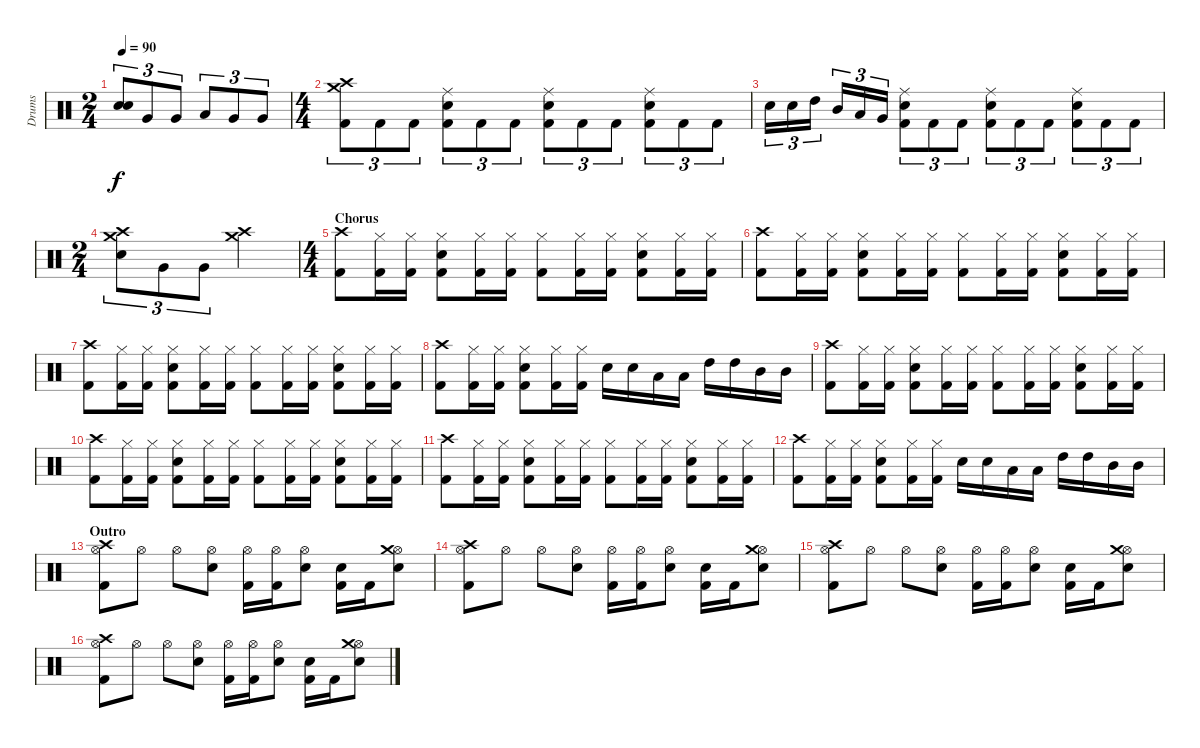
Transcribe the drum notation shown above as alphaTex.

\track ("Drums" "Drums") {instrument percussion}
\staff {score}
\articulation defaults
\ts (2 4)
\tempo 90
\clef neutral
\ks c
("Electric Snare (hit)" "Electric Snare (hit)").8{tu (3 2) dy f} "Very Low Tom (hit)".8{tu (3 2)} "Very Low Tom (hit)".8{tu (3 2)} "Low Tom (hit)".8{tu (3 2)} "Very Low Tom (hit)".8{tu (3 2)} "Very Low Tom (hit)".8{tu (3 2)} |
\ts (4 4)
("Crash medium (hit)" "Crash high (hit)" "Kick (hit) 2").8{tu (3 2)} "Kick (hit) 2".8{tu (3 2)} "Kick (hit) 2".8{tu (3 2)} ("Electric Snare (hit)" "Ride (middle)" "Kick (hit) 2").8{tu (3 2)} "Kick (hit) 2".8{tu (3 2)} "Kick (hit) 2".8{tu (3 2)} ("Electric Snare (hit)" "Ride (middle)" "Kick (hit) 2").8{tu (3 2)} "Kick (hit) 2".8{tu (3 2)} "Kick (hit) 2".8{tu (3 2)} ("Electric Snare (hit)" "Ride (middle)" "Kick (hit) 2").8{tu (3 2)} "Kick (hit) 2".8{tu (3 2)} "Kick (hit) 2".8{tu (3 2)} |
"Electric Snare (hit)".16{tu (3 2)} "Electric Snare (hit)".16{tu (3 2)} "High Tom (hit)".16{tu (3 2)} "Mid Tom (hit)".16{tu (3 2)} "Low Tom (hit)".16{tu (3 2)} "Very Low Tom (hit)".16{tu (3 2)} ("Electric Snare (hit)" "Ride (middle)" "Kick (hit) 2").8{tu (3 2)} "Kick (hit) 2".8{tu (3 2)} "Kick (hit) 2".8{tu (3 2)} ("Electric Snare (hit)" "Ride (middle)" "Kick (hit) 2").8{tu (3 2)} "Kick (hit) 2".8{tu (3 2)} "Kick (hit) 2".8{tu (3 2)} ("Electric Snare (hit)" "Ride (middle)" "Kick (hit) 2").8{tu (3 2)} "Kick (hit) 2".8{tu (3 2)} "Kick (hit) 2".8{tu (3 2)} |
\ts (2 4)
("Crash high (hit)" "Crash medium (hit)" "Electric Snare (hit)").8{tu (3 2)} "Very Low Tom (hit)".8{tu (3 2)} "Very Low Tom (hit)".8{tu (3 2)} ("Crash high (hit)" "Crash medium (hit)").4 |
\ts (4 4)
\section ("" "Chorus")
("Crash high (hit)" "Kick (hit) 2").8 ("Hi-Hat (closed)" "Kick (hit) 2").16 ("Hi-Hat (closed)" "Kick (hit) 2").16 ("Hi-Hat (closed)" "Kick (hit) 2" "Electric Snare (hit)").8 ("Hi-Hat (closed)" "Kick (hit) 2").16 ("Hi-Hat (closed)" "Kick (hit) 2").16 ("Hi-Hat (closed)" "Kick (hit) 2").8 ("Hi-Hat (closed)" "Kick (hit) 2").16 ("Hi-Hat (closed)" "Kick (hit) 2").16 ("Hi-Hat (closed)" "Kick (hit) 2" "Electric Snare (hit)").8 ("Hi-Hat (closed)" "Kick (hit) 2").16 ("Hi-Hat (closed)" "Kick (hit) 2").16 |
("Crash high (hit)" "Kick (hit) 2").8 ("Hi-Hat (closed)" "Kick (hit) 2").16 ("Hi-Hat (closed)" "Kick (hit) 2").16 ("Hi-Hat (closed)" "Kick (hit) 2" "Electric Snare (hit)").8 ("Hi-Hat (closed)" "Kick (hit) 2").16 ("Hi-Hat (closed)" "Kick (hit) 2").16 ("Hi-Hat (closed)" "Kick (hit) 2").8 ("Hi-Hat (closed)" "Kick (hit) 2").16 ("Hi-Hat (closed)" "Kick (hit) 2").16 ("Hi-Hat (closed)" "Kick (hit) 2" "Electric Snare (hit)").8 ("Hi-Hat (closed)" "Kick (hit) 2").16 ("Hi-Hat (closed)" "Kick (hit) 2").16 |
("Crash high (hit)" "Kick (hit) 2").8 ("Hi-Hat (closed)" "Kick (hit) 2").16 ("Hi-Hat (closed)" "Kick (hit) 2").16 ("Hi-Hat (closed)" "Kick (hit) 2" "Electric Snare (hit)").8 ("Hi-Hat (closed)" "Kick (hit) 2").16 ("Hi-Hat (closed)" "Kick (hit) 2").16 ("Hi-Hat (closed)" "Kick (hit) 2").8 ("Hi-Hat (closed)" "Kick (hit) 2").16 ("Hi-Hat (closed)" "Kick (hit) 2").16 ("Hi-Hat (closed)" "Kick (hit) 2" "Electric Snare (hit)").8 ("Hi-Hat (closed)" "Kick (hit) 2").16 ("Hi-Hat (closed)" "Kick (hit) 2").16 |
("Crash high (hit)" "Kick (hit) 2").8 ("Hi-Hat (closed)" "Kick (hit) 2").16 ("Hi-Hat (closed)" "Kick (hit) 2").16 ("Hi-Hat (closed)" "Kick (hit) 2" "Electric Snare (hit)").8 ("Hi-Hat (closed)" "Kick (hit) 2").16 ("Hi-Hat (closed)" "Kick (hit) 2").16 "Electric Snare (hit)".16 "Electric Snare (hit)".16 "Low Tom (hit)".16 "Low Tom (hit)".16 "High Tom (hit)".16 "High Tom (hit)".16 "Mid Tom (hit)".16 "Mid Tom (hit)".16 |
("Crash high (hit)" "Kick (hit) 2").8 ("Hi-Hat (closed)" "Kick (hit) 2").16 ("Hi-Hat (closed)" "Kick (hit) 2").16 ("Hi-Hat (closed)" "Kick (hit) 2" "Electric Snare (hit)").8 ("Hi-Hat (closed)" "Kick (hit) 2").16 ("Hi-Hat (closed)" "Kick (hit) 2").16 ("Hi-Hat (closed)" "Kick (hit) 2").8 ("Hi-Hat (closed)" "Kick (hit) 2").16 ("Hi-Hat (closed)" "Kick (hit) 2").16 ("Hi-Hat (closed)" "Kick (hit) 2" "Electric Snare (hit)").8 ("Hi-Hat (closed)" "Kick (hit) 2").16 ("Hi-Hat (closed)" "Kick (hit) 2").16 |
("Crash high (hit)" "Kick (hit) 2").8 ("Hi-Hat (closed)" "Kick (hit) 2").16 ("Hi-Hat (closed)" "Kick (hit) 2").16 ("Hi-Hat (closed)" "Kick (hit) 2" "Electric Snare (hit)").8 ("Hi-Hat (closed)" "Kick (hit) 2").16 ("Hi-Hat (closed)" "Kick (hit) 2").16 ("Hi-Hat (closed)" "Kick (hit) 2").8 ("Hi-Hat (closed)" "Kick (hit) 2").16 ("Hi-Hat (closed)" "Kick (hit) 2").16 ("Hi-Hat (closed)" "Kick (hit) 2" "Electric Snare (hit)").8 ("Hi-Hat (closed)" "Kick (hit) 2").16 ("Hi-Hat (closed)" "Kick (hit) 2").16 |
("Crash high (hit)" "Kick (hit) 2").8 ("Hi-Hat (closed)" "Kick (hit) 2").16 ("Hi-Hat (closed)" "Kick (hit) 2").16 ("Hi-Hat (closed)" "Kick (hit) 2" "Electric Snare (hit)").8 ("Hi-Hat (closed)" "Kick (hit) 2").16 ("Hi-Hat (closed)" "Kick (hit) 2").16 ("Hi-Hat (closed)" "Kick (hit) 2").8 ("Hi-Hat (closed)" "Kick (hit) 2").16 ("Hi-Hat (closed)" "Kick (hit) 2").16 ("Hi-Hat (closed)" "Kick (hit) 2" "Electric Snare (hit)").8 ("Hi-Hat (closed)" "Kick (hit) 2").16 ("Hi-Hat (closed)" "Kick (hit) 2").16 |
("Crash high (hit)" "Kick (hit) 2").8 ("Hi-Hat (closed)" "Kick (hit) 2").16 ("Hi-Hat (closed)" "Kick (hit) 2").16 ("Hi-Hat (closed)" "Kick (hit) 2" "Electric Snare (hit)").8 ("Hi-Hat (closed)" "Kick (hit) 2").16 ("Hi-Hat (closed)" "Kick (hit) 2").16 "Electric Snare (hit)".16 "Electric Snare (hit)".16 "Low Tom (hit)".16 "Low Tom (hit)".16 "High Tom (hit)".16 "High Tom (hit)".16 "Mid Tom (hit)".16 "Mid Tom (hit)".16 |
\section ("" "Outro")
("Hi-Hat (open)" "Kick (hit) 2" "Crash high (hit)").8 "Hi-Hat (open)".8 "Hi-Hat (open)".8 ("Hi-Hat (open)" "Electric Snare (hit)").8 ("Hi-Hat (open)" "Kick (hit) 2").16 ("Hi-Hat (open)" "Kick (hit) 2").16 ("Electric Snare (hit)" "Hi-Hat (open)").8 ("Electric Snare (hit)" "Kick (hit) 2").16 "Kick (hit) 2".16 ("Electric Snare (hit)" "Hi-Hat (open)" "Crash medium (hit)").8 |
("Hi-Hat (open)" "Kick (hit) 2" "Crash high (hit)").8 "Hi-Hat (open)".8 "Hi-Hat (open)".8 ("Hi-Hat (open)" "Electric Snare (hit)").8 ("Hi-Hat (open)" "Kick (hit) 2").16 ("Hi-Hat (open)" "Kick (hit) 2").16 ("Electric Snare (hit)" "Hi-Hat (open)").8 ("Electric Snare (hit)" "Kick (hit) 2").16 "Kick (hit) 2".16 ("Electric Snare (hit)" "Hi-Hat (open)" "Crash medium (hit)").8 |
("Hi-Hat (open)" "Kick (hit) 2" "Crash high (hit)").8 "Hi-Hat (open)".8 "Hi-Hat (open)".8 ("Hi-Hat (open)" "Electric Snare (hit)").8 ("Hi-Hat (open)" "Kick (hit) 2").16 ("Hi-Hat (open)" "Kick (hit) 2").16 ("Electric Snare (hit)" "Hi-Hat (open)").8 ("Electric Snare (hit)" "Kick (hit) 2").16 "Kick (hit) 2".16 ("Electric Snare (hit)" "Hi-Hat (open)" "Crash medium (hit)").8 |
("Hi-Hat (open)" "Kick (hit) 2" "Crash high (hit)").8 "Hi-Hat (open)".8 "Hi-Hat (open)".8 ("Hi-Hat (open)" "Electric Snare (hit)").8 ("Hi-Hat (open)" "Kick (hit) 2").16 ("Hi-Hat (open)" "Kick (hit) 2").16 ("Electric Snare (hit)" "Hi-Hat (open)").8 ("Electric Snare (hit)" "Kick (hit) 2").16 "Kick (hit) 2".16 ("Electric Snare (hit)" "Hi-Hat (open)" "Crash medium (hit)").8
